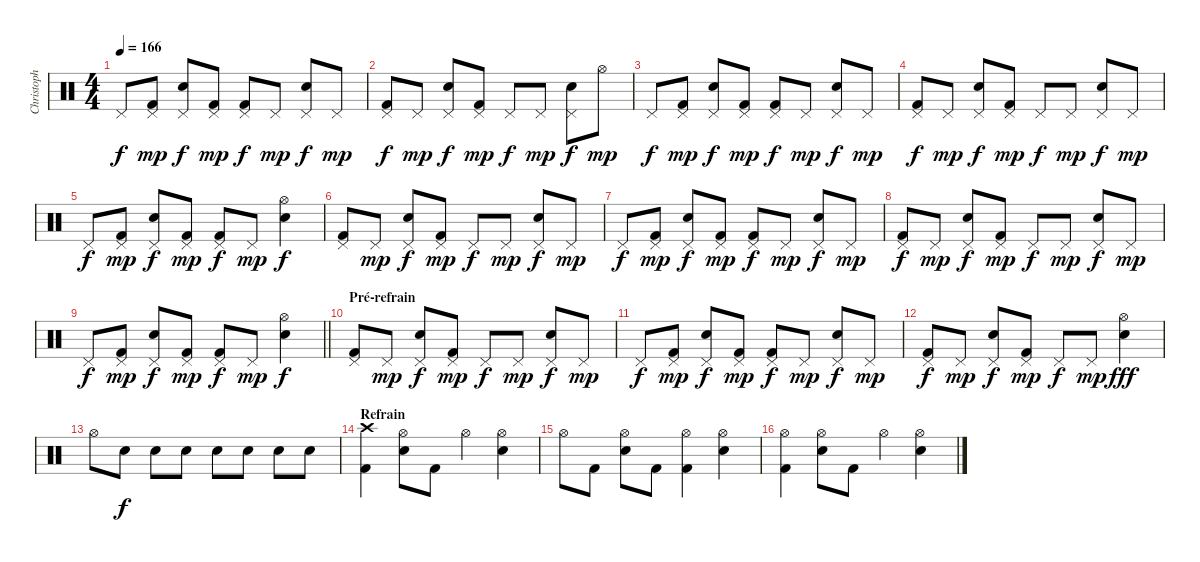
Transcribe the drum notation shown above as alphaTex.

\track ("Christoph" "Christoph") {instrument percussion}
\staff {score}
\articulation defaults
\ts (4 4)
\tempo 166
\clef neutral
\ks c "Pedal Hi-Hat (hit)".8{dy f}
("Pedal Hi-Hat (hit)" "Kick (hit) 2").8{dy mp} ("Pedal Hi-Hat (hit)" "Electric Snare (hit)").8{dy f} ("Pedal Hi-Hat (hit)" "Kick (hit) 2").8{dy mp} ("Pedal Hi-Hat (hit)" "Kick (hit) 2").8{dy f} "Pedal Hi-Hat (hit)".8{dy mp} ("Pedal Hi-Hat (hit)" "Electric Snare (hit)").8{dy f} "Pedal Hi-Hat (hit)".8{dy mp} |
("Pedal Hi-Hat (hit)" "Kick (hit) 2").8{dy f} "Pedal Hi-Hat (hit)".8{dy mp} ("Pedal Hi-Hat (hit)" "Electric Snare (hit)").8{dy f} ("Pedal Hi-Hat (hit)" "Kick (hit) 2").8{dy mp} "Pedal Hi-Hat (hit)".8{dy f} "Pedal Hi-Hat (hit)".8{dy mp} ("Pedal Hi-Hat (hit)" "Electric Snare (hit)").8{dy f} "Hi-Hat (open)".8{dy mp} |
"Pedal Hi-Hat (hit)".8{dy f} ("Pedal Hi-Hat (hit)" "Kick (hit) 2").8{dy mp} ("Pedal Hi-Hat (hit)" "Electric Snare (hit)").8{dy f} ("Pedal Hi-Hat (hit)" "Kick (hit) 2").8{dy mp} ("Pedal Hi-Hat (hit)" "Kick (hit) 2").8{dy f} "Pedal Hi-Hat (hit)".8{dy mp} ("Pedal Hi-Hat (hit)" "Electric Snare (hit)").8{dy f} "Pedal Hi-Hat (hit)".8{dy mp} |
("Pedal Hi-Hat (hit)" "Kick (hit) 2").8{dy f} "Pedal Hi-Hat (hit)".8{dy mp} ("Pedal Hi-Hat (hit)" "Electric Snare (hit)").8{dy f} ("Pedal Hi-Hat (hit)" "Kick (hit) 2").8{dy mp} "Pedal Hi-Hat (hit)".8{dy f} "Pedal Hi-Hat (hit)".8{dy mp} ("Pedal Hi-Hat (hit)" "Electric Snare (hit)").8{dy f} "Pedal Hi-Hat (hit)".8{dy mp} |
"Pedal Hi-Hat (hit)".8{dy f} ("Pedal Hi-Hat (hit)" "Kick (hit) 2").8{dy mp} ("Pedal Hi-Hat (hit)" "Electric Snare (hit)").8{dy f} ("Pedal Hi-Hat (hit)" "Kick (hit) 2").8{dy mp} ("Pedal Hi-Hat (hit)" "Kick (hit) 2").8{dy f} "Pedal Hi-Hat (hit)".8{dy mp} ("Hi-Hat (open)" "Electric Snare (hit)").4{dy f} |
("Pedal Hi-Hat (hit)" "Kick (hit) 2").8 "Pedal Hi-Hat (hit)".8{dy mp} ("Pedal Hi-Hat (hit)" "Electric Snare (hit)").8{dy f} ("Pedal Hi-Hat (hit)" "Kick (hit) 2").8{dy mp} "Pedal Hi-Hat (hit)".8{dy f} "Pedal Hi-Hat (hit)".8{dy mp} ("Pedal Hi-Hat (hit)" "Electric Snare (hit)").8{dy f} "Pedal Hi-Hat (hit)".8{dy mp} |
"Pedal Hi-Hat (hit)".8{dy f} ("Pedal Hi-Hat (hit)" "Kick (hit) 2").8{dy mp} ("Pedal Hi-Hat (hit)" "Electric Snare (hit)").8{dy f} ("Pedal Hi-Hat (hit)" "Kick (hit) 2").8{dy mp} ("Pedal Hi-Hat (hit)" "Kick (hit) 2").8{dy f} "Pedal Hi-Hat (hit)".8{dy mp} ("Pedal Hi-Hat (hit)" "Electric Snare (hit)").8{dy f} "Pedal Hi-Hat (hit)".8{dy mp} |
("Pedal Hi-Hat (hit)" "Kick (hit) 2").8{dy f} "Pedal Hi-Hat (hit)".8{dy mp} ("Pedal Hi-Hat (hit)" "Electric Snare (hit)").8{dy f} ("Pedal Hi-Hat (hit)" "Kick (hit) 2").8{dy mp} "Pedal Hi-Hat (hit)".8{dy f} "Pedal Hi-Hat (hit)".8{dy mp} ("Pedal Hi-Hat (hit)" "Electric Snare (hit)").8{dy f} "Pedal Hi-Hat (hit)".8{dy mp} |
\barLineRight lightlight "Pedal Hi-Hat (hit)".8{dy f}
("Pedal Hi-Hat (hit)" "Kick (hit) 2").8{dy mp} ("Pedal Hi-Hat (hit)" "Electric Snare (hit)").8{dy f} ("Pedal Hi-Hat (hit)" "Kick (hit) 2").8{dy mp} ("Pedal Hi-Hat (hit)" "Kick (hit) 2").8{dy f} "Pedal Hi-Hat (hit)".8{dy mp} ("Hi-Hat (open)" "Electric Snare (hit)").4{dy f} |
\section ("" "Pré-refrain")
("Pedal Hi-Hat (hit)" "Kick (hit) 2").8 "Pedal Hi-Hat (hit)".8{dy mp} ("Pedal Hi-Hat (hit)" "Electric Snare (hit)").8{dy f} ("Pedal Hi-Hat (hit)" "Kick (hit) 2").8{dy mp} "Pedal Hi-Hat (hit)".8{dy f} "Pedal Hi-Hat (hit)".8{dy mp} ("Pedal Hi-Hat (hit)" "Electric Snare (hit)").8{dy f} "Pedal Hi-Hat (hit)".8{dy mp} |
"Pedal Hi-Hat (hit)".8{dy f} ("Pedal Hi-Hat (hit)" "Kick (hit) 2").8{dy mp} ("Pedal Hi-Hat (hit)" "Electric Snare (hit)").8{dy f} ("Pedal Hi-Hat (hit)" "Kick (hit) 2").8{dy mp} ("Pedal Hi-Hat (hit)" "Kick (hit) 2").8{dy f} "Pedal Hi-Hat (hit)".8{dy mp} ("Pedal Hi-Hat (hit)" "Electric Snare (hit)").8{dy f} "Pedal Hi-Hat (hit)".8{dy mp} |
("Pedal Hi-Hat (hit)" "Kick (hit) 2").8{dy f} "Pedal Hi-Hat (hit)".8{dy mp} ("Pedal Hi-Hat (hit)" "Electric Snare (hit)").8{dy f} ("Pedal Hi-Hat (hit)" "Kick (hit) 2").8{dy mp} "Pedal Hi-Hat (hit)".8{dy f} "Pedal Hi-Hat (hit)".8{dy mp} ("Hi-Hat (open)" "Electric Snare (hit)").4{dy fff} |
"Hi-Hat (open)".8 "Electric Snare (hit)".8{dy f} "Electric Snare (hit)".8 "Electric Snare (hit)".8 "Electric Snare (hit)".8 "Electric Snare (hit)".8 "Electric Snare (hit)".8 "Electric Snare (hit)".8 |
\section ("" "Refrain")
("Crash high (hit)" "Kick (hit) 2").4 ("Hi-Hat (open)" "Electric Snare (hit)").8 "Kick (hit) 2".8 "Hi-Hat (open)".4 ("Hi-Hat (open)" "Electric Snare (hit)").4 |
"Hi-Hat (open)".8 "Kick (hit) 2".8 ("Hi-Hat (open)" "Electric Snare (hit)").8 "Kick (hit) 2".8 ("Hi-Hat (open)" "Kick (hit) 2").4 ("Hi-Hat (open)" "Electric Snare (hit)").4 |
("Hi-Hat (open)" "Kick (hit) 2").4 ("Hi-Hat (open)" "Electric Snare (hit)").8 "Kick (hit) 2".8 "Hi-Hat (open)".4 ("Hi-Hat (open)" "Electric Snare (hit)").4
